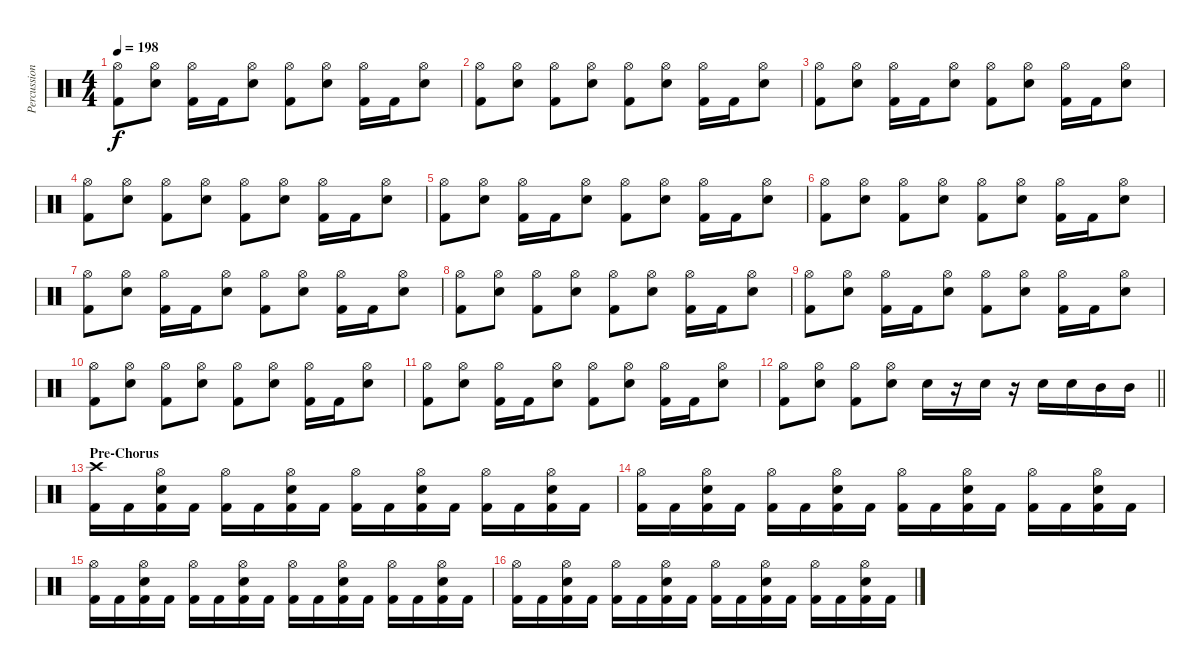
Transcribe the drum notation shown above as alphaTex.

\track ("Percussion" "Percussion") {instrument percussion}
\staff {score}
\articulation defaults
\ts (4 4)
\tempo 198
\clef neutral
\ks c
("Hi-Hat (open)" "Kick (hit) 2").8{dy f} ("Hi-Hat (open)" "Electric Snare (hit)").8 ("Hi-Hat (open)" "Kick (hit) 2").16 "Kick (hit) 2".16 ("Hi-Hat (open)" "Electric Snare (hit)").8 ("Hi-Hat (open)" "Kick (hit) 2").8 ("Hi-Hat (open)" "Electric Snare (hit)").8 ("Hi-Hat (open)" "Kick (hit) 2").16 "Kick (hit) 2".16 ("Hi-Hat (open)" "Electric Snare (hit)").8 |
("Hi-Hat (open)" "Kick (hit) 2").8 ("Hi-Hat (open)" "Electric Snare (hit)").8 ("Hi-Hat (open)" "Kick (hit) 2").8 ("Hi-Hat (open)" "Electric Snare (hit)").8 ("Hi-Hat (open)" "Kick (hit) 2").8 ("Hi-Hat (open)" "Electric Snare (hit)").8 ("Hi-Hat (open)" "Kick (hit) 2").16 "Kick (hit) 2".16 ("Hi-Hat (open)" "Electric Snare (hit)").8 |
("Hi-Hat (open)" "Kick (hit) 2").8 ("Hi-Hat (open)" "Electric Snare (hit)").8 ("Hi-Hat (open)" "Kick (hit) 2").16 "Kick (hit) 2".16 ("Hi-Hat (open)" "Electric Snare (hit)").8 ("Hi-Hat (open)" "Kick (hit) 2").8 ("Hi-Hat (open)" "Electric Snare (hit)").8 ("Hi-Hat (open)" "Kick (hit) 2").16 "Kick (hit) 2".16 ("Hi-Hat (open)" "Electric Snare (hit)").8 |
("Hi-Hat (open)" "Kick (hit) 2").8 ("Hi-Hat (open)" "Electric Snare (hit)").8 ("Hi-Hat (open)" "Kick (hit) 2").8 ("Hi-Hat (open)" "Electric Snare (hit)").8 ("Hi-Hat (open)" "Kick (hit) 2").8 ("Hi-Hat (open)" "Electric Snare (hit)").8 ("Hi-Hat (open)" "Kick (hit) 2").16 "Kick (hit) 2".16 ("Hi-Hat (open)" "Electric Snare (hit)").8 |
("Hi-Hat (open)" "Kick (hit) 2").8 ("Hi-Hat (open)" "Electric Snare (hit)").8 ("Hi-Hat (open)" "Kick (hit) 2").16 "Kick (hit) 2".16 ("Hi-Hat (open)" "Electric Snare (hit)").8 ("Hi-Hat (open)" "Kick (hit) 2").8 ("Hi-Hat (open)" "Electric Snare (hit)").8 ("Hi-Hat (open)" "Kick (hit) 2").16 "Kick (hit) 2".16 ("Hi-Hat (open)" "Electric Snare (hit)").8 |
("Hi-Hat (open)" "Kick (hit) 2").8 ("Hi-Hat (open)" "Electric Snare (hit)").8 ("Hi-Hat (open)" "Kick (hit) 2").8 ("Hi-Hat (open)" "Electric Snare (hit)").8 ("Hi-Hat (open)" "Kick (hit) 2").8 ("Hi-Hat (open)" "Electric Snare (hit)").8 ("Hi-Hat (open)" "Kick (hit) 2").16 "Kick (hit) 2".16 ("Hi-Hat (open)" "Electric Snare (hit)").8 |
("Hi-Hat (open)" "Kick (hit) 2").8 ("Hi-Hat (open)" "Electric Snare (hit)").8 ("Hi-Hat (open)" "Kick (hit) 2").16 "Kick (hit) 2".16 ("Hi-Hat (open)" "Electric Snare (hit)").8 ("Hi-Hat (open)" "Kick (hit) 2").8 ("Hi-Hat (open)" "Electric Snare (hit)").8 ("Hi-Hat (open)" "Kick (hit) 2").16 "Kick (hit) 2".16 ("Hi-Hat (open)" "Electric Snare (hit)").8 |
("Hi-Hat (open)" "Kick (hit) 2").8 ("Hi-Hat (open)" "Electric Snare (hit)").8 ("Hi-Hat (open)" "Kick (hit) 2").8 ("Hi-Hat (open)" "Electric Snare (hit)").8 ("Hi-Hat (open)" "Kick (hit) 2").8 ("Hi-Hat (open)" "Electric Snare (hit)").8 ("Hi-Hat (open)" "Kick (hit) 2").16 "Kick (hit) 2".16 ("Hi-Hat (open)" "Electric Snare (hit)").8 |
("Hi-Hat (open)" "Kick (hit) 2").8 ("Hi-Hat (open)" "Electric Snare (hit)").8 ("Hi-Hat (open)" "Kick (hit) 2").16 "Kick (hit) 2".16 ("Hi-Hat (open)" "Electric Snare (hit)").8 ("Hi-Hat (open)" "Kick (hit) 2").8 ("Hi-Hat (open)" "Electric Snare (hit)").8 ("Hi-Hat (open)" "Kick (hit) 2").16 "Kick (hit) 2".16 ("Hi-Hat (open)" "Electric Snare (hit)").8 |
("Hi-Hat (open)" "Kick (hit) 2").8 ("Hi-Hat (open)" "Electric Snare (hit)").8 ("Hi-Hat (open)" "Kick (hit) 2").8 ("Hi-Hat (open)" "Electric Snare (hit)").8 ("Hi-Hat (open)" "Kick (hit) 2").8 ("Hi-Hat (open)" "Electric Snare (hit)").8 ("Hi-Hat (open)" "Kick (hit) 2").16 "Kick (hit) 2".16 ("Hi-Hat (open)" "Electric Snare (hit)").8 |
("Hi-Hat (open)" "Kick (hit) 2").8 ("Hi-Hat (open)" "Electric Snare (hit)").8 ("Hi-Hat (open)" "Kick (hit) 2").16 "Kick (hit) 2".16 ("Hi-Hat (open)" "Electric Snare (hit)").8 ("Hi-Hat (open)" "Kick (hit) 2").8 ("Hi-Hat (open)" "Electric Snare (hit)").8 ("Hi-Hat (open)" "Kick (hit) 2").16 "Kick (hit) 2".16 ("Hi-Hat (open)" "Electric Snare (hit)").8 |
\barLineRight lightlight
("Hi-Hat (open)" "Kick (hit) 2").8 ("Hi-Hat (open)" "Electric Snare (hit)").8 ("Hi-Hat (open)" "Kick (hit) 2").8 ("Hi-Hat (open)" "Electric Snare (hit)").8 "Electric Snare (hit)".16 r.16 "Electric Snare (hit)".16 r.16 "Electric Snare (hit)".16 "Electric Snare (hit)".16 "Mid Tom (hit)".16 "Mid Tom (hit)".16 |
\section ("" "Pre-Chorus")
("Crash high (hit)" "Kick (hit) 2").16 "Kick (hit) 2".16 ("Hi-Hat (open)" "Electric Snare (hit)" "Kick (hit) 2").16 "Kick (hit) 2".16 ("Hi-Hat (open)" "Kick (hit) 2").16 "Kick (hit) 2".16 ("Hi-Hat (open)" "Electric Snare (hit)" "Kick (hit) 2").16 "Kick (hit) 2".16 ("Hi-Hat (open)" "Kick (hit) 2").16 "Kick (hit) 2".16 ("Hi-Hat (open)" "Electric Snare (hit)" "Kick (hit) 2").16 "Kick (hit) 2".16 ("Hi-Hat (open)" "Kick (hit) 2").16 "Kick (hit) 2".16 ("Hi-Hat (open)" "Electric Snare (hit)" "Kick (hit) 2").16 "Kick (hit) 2".16 |
("Hi-Hat (open)" "Kick (hit) 2").16 "Kick (hit) 2".16 ("Hi-Hat (open)" "Electric Snare (hit)" "Kick (hit) 2").16 "Kick (hit) 2".16 ("Hi-Hat (open)" "Kick (hit) 2").16 "Kick (hit) 2".16 ("Hi-Hat (open)" "Electric Snare (hit)" "Kick (hit) 2").16 "Kick (hit) 2".16 ("Hi-Hat (open)" "Kick (hit) 2").16 "Kick (hit) 2".16 ("Hi-Hat (open)" "Electric Snare (hit)" "Kick (hit) 2").16 "Kick (hit) 2".16 ("Hi-Hat (open)" "Kick (hit) 2").16 "Kick (hit) 2".16 ("Hi-Hat (open)" "Electric Snare (hit)" "Kick (hit) 2").16 "Kick (hit) 2".16 |
("Hi-Hat (open)" "Kick (hit) 2").16 "Kick (hit) 2".16 ("Hi-Hat (open)" "Electric Snare (hit)" "Kick (hit) 2").16 "Kick (hit) 2".16 ("Hi-Hat (open)" "Kick (hit) 2").16 "Kick (hit) 2".16 ("Hi-Hat (open)" "Electric Snare (hit)" "Kick (hit) 2").16 "Kick (hit) 2".16 ("Hi-Hat (open)" "Kick (hit) 2").16 "Kick (hit) 2".16 ("Hi-Hat (open)" "Electric Snare (hit)" "Kick (hit) 2").16 "Kick (hit) 2".16 ("Hi-Hat (open)" "Kick (hit) 2").16 "Kick (hit) 2".16 ("Hi-Hat (open)" "Electric Snare (hit)" "Kick (hit) 2").16 "Kick (hit) 2".16 |
("Hi-Hat (open)" "Kick (hit) 2").16 "Kick (hit) 2".16 ("Hi-Hat (open)" "Electric Snare (hit)" "Kick (hit) 2").16 "Kick (hit) 2".16 ("Hi-Hat (open)" "Kick (hit) 2").16 "Kick (hit) 2".16 ("Hi-Hat (open)" "Electric Snare (hit)" "Kick (hit) 2").16 "Kick (hit) 2".16 ("Hi-Hat (open)" "Kick (hit) 2").16 "Kick (hit) 2".16 ("Hi-Hat (open)" "Electric Snare (hit)" "Kick (hit) 2").16 "Kick (hit) 2".16 ("Hi-Hat (open)" "Kick (hit) 2").16 "Kick (hit) 2".16 ("Hi-Hat (open)" "Electric Snare (hit)" "Kick (hit) 2").16 "Kick (hit) 2".16
